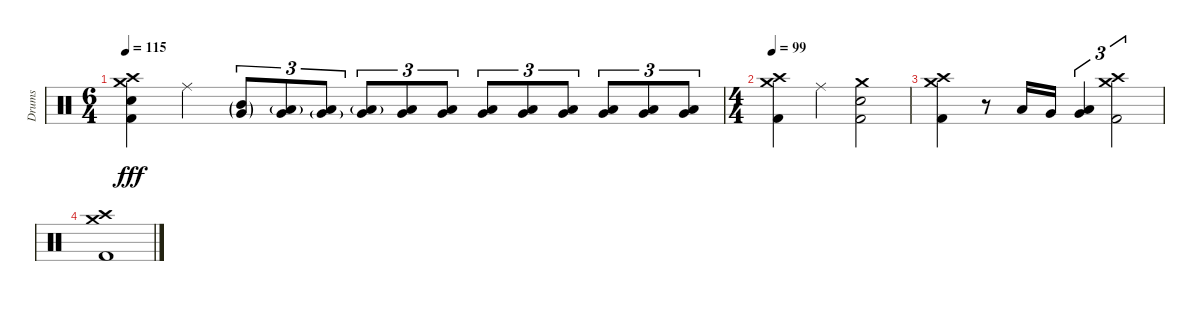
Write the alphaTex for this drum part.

\track ("Drums" "Drums") {instrument percussion}
\staff {score}
\articulation defaults
\ts (6 4)
\tempo 115
\clef neutral
\ks c
("Crash high (hit)" "Crash medium (hit)" "Electric Snare (hit)" "Kick (hit) 2").4{dy fff} "Ride (middle)".4 ("Mid Tom (hit)"{g} "Very Low Tom (hit)"{g}).8{tu (3 2)} ("Low Tom (hit)"{g} "Very Low Tom (hit)").8{tu (3 2)} ("Low Tom (hit)" "Very Low Tom (hit)"{g}).8{tu (3 2)} ("Low Tom (hit)"{g} "Very Low Tom (hit)").8{tu (3 2)} ("Low Tom (hit)" "Very Low Tom (hit)").8{tu (3 2)} ("Low Tom (hit)" "Very Low Tom (hit)").8{tu (3 2)} ("Low Tom (hit)" "Very Low Tom (hit)").8{tu (3 2)} ("Low Tom (hit)" "Very Low Tom (hit)").8{tu (3 2)} ("Low Tom (hit)" "Very Low Tom (hit)").8{tu (3 2)} ("Low Tom (hit)" "Very Low Tom (hit)").8{tu (3 2)} ("Low Tom (hit)" "Very Low Tom (hit)").8{tu (3 2)} ("Low Tom (hit)" "Very Low Tom (hit)").8{tu (3 2)} |
\ts (4 4)
\tempo 99
("Crash high (hit)" "Crash medium (hit)" "Kick (hit) 2").4 "Ride (middle)".4 ("Crash medium (hit)" "Electric Snare (hit)" "Kick (hit) 2").2 |
("Crash high (hit)" "Crash medium (hit)" "Kick (hit) 2").4 r.8 "Low Tom (hit)".16 "Very Low Tom (hit)".16 ("Very Low Tom (hit)" "Low Tom (hit)").4{tu (3 2)} ("Crash high (hit)" "Crash medium (hit)" "Kick (hit) 2").2{tu (3 2)} |
("Crash high (hit)" "Crash medium (hit)" "Kick (hit) 2").1
